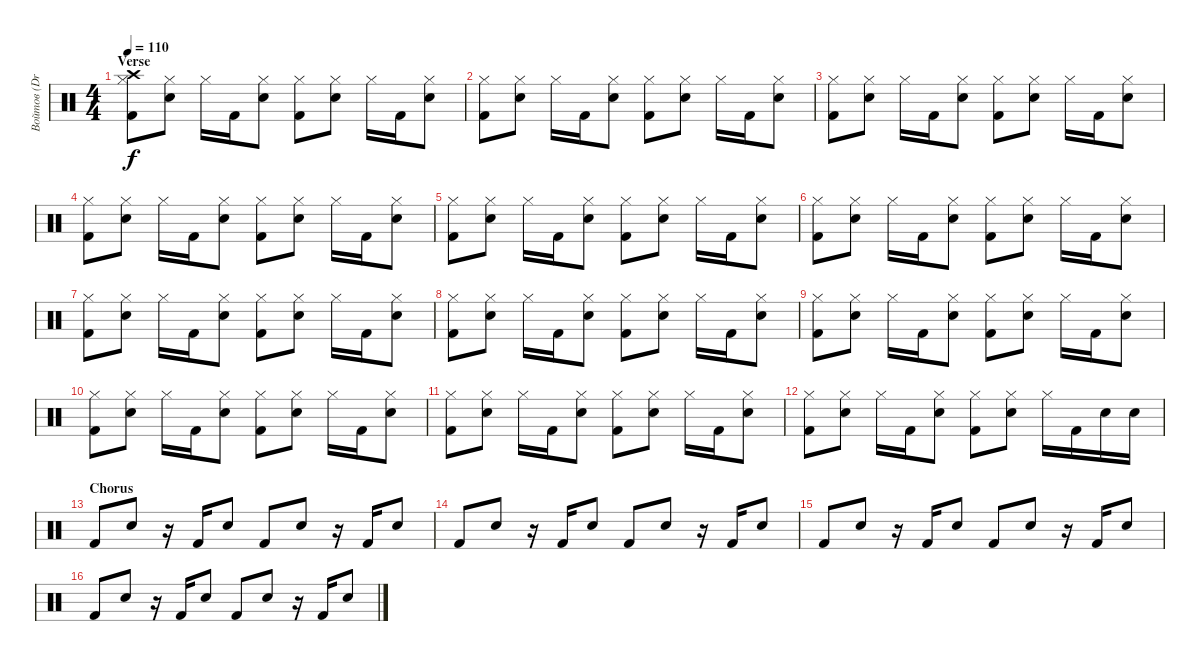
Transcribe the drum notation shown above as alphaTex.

\track ("Войтов (Drums)" "Войтов (Dr") {instrument percussion}
\staff {score}
\articulation defaults
\ts (4 4)
\section ("" "Verse")
\tempo 110
\clef neutral
\ks c
("Kick (hit) 2" "Crash high (hit)" "Hi-Hat (closed)").8{dy f} ("Electric Snare (hit)" "Hi-Hat (closed)").8 "Hi-Hat (closed)".16 "Kick (hit) 2".16 ("Electric Snare (hit)" "Hi-Hat (closed)").8 ("Kick (hit) 2" "Hi-Hat (closed)").8 ("Electric Snare (hit)" "Hi-Hat (closed)").8 "Hi-Hat (closed)".16 "Kick (hit) 2".16 ("Electric Snare (hit)" "Hi-Hat (closed)").8 |
("Kick (hit) 2" "Hi-Hat (closed)").8 ("Electric Snare (hit)" "Hi-Hat (closed)").8 "Hi-Hat (closed)".16 "Kick (hit) 2".16 ("Electric Snare (hit)" "Hi-Hat (closed)").8 ("Kick (hit) 2" "Hi-Hat (closed)").8 ("Electric Snare (hit)" "Hi-Hat (closed)").8 "Hi-Hat (closed)".16 "Kick (hit) 2".16 ("Electric Snare (hit)" "Hi-Hat (closed)").8 |
("Kick (hit) 2" "Hi-Hat (closed)").8 ("Electric Snare (hit)" "Hi-Hat (closed)").8 "Hi-Hat (closed)".16 "Kick (hit) 2".16 ("Electric Snare (hit)" "Hi-Hat (closed)").8 ("Kick (hit) 2" "Hi-Hat (closed)").8 ("Electric Snare (hit)" "Hi-Hat (closed)").8 "Hi-Hat (closed)".16 "Kick (hit) 2".16 ("Electric Snare (hit)" "Hi-Hat (closed)").8 |
("Kick (hit) 2" "Hi-Hat (closed)").8 ("Electric Snare (hit)" "Hi-Hat (closed)").8 "Hi-Hat (closed)".16 "Kick (hit) 2".16 ("Electric Snare (hit)" "Hi-Hat (closed)").8 ("Kick (hit) 2" "Hi-Hat (closed)").8 ("Electric Snare (hit)" "Hi-Hat (closed)").8 "Hi-Hat (closed)".16 "Kick (hit) 2".16 ("Electric Snare (hit)" "Hi-Hat (closed)").8 |
("Kick (hit) 2" "Hi-Hat (closed)").8 ("Electric Snare (hit)" "Hi-Hat (closed)").8 "Hi-Hat (closed)".16 "Kick (hit) 2".16 ("Electric Snare (hit)" "Hi-Hat (closed)").8 ("Kick (hit) 2" "Hi-Hat (closed)").8 ("Electric Snare (hit)" "Hi-Hat (closed)").8 "Hi-Hat (closed)".16 "Kick (hit) 2".16 ("Electric Snare (hit)" "Hi-Hat (closed)").8 |
("Kick (hit) 2" "Hi-Hat (closed)").8 ("Electric Snare (hit)" "Hi-Hat (closed)").8 "Hi-Hat (closed)".16 "Kick (hit) 2".16 ("Electric Snare (hit)" "Hi-Hat (closed)").8 ("Kick (hit) 2" "Hi-Hat (closed)").8 ("Electric Snare (hit)" "Hi-Hat (closed)").8 "Hi-Hat (closed)".16 "Kick (hit) 2".16 ("Electric Snare (hit)" "Hi-Hat (closed)").8 |
("Kick (hit) 2" "Hi-Hat (closed)").8 ("Electric Snare (hit)" "Hi-Hat (closed)").8 "Hi-Hat (closed)".16 "Kick (hit) 2".16 ("Electric Snare (hit)" "Hi-Hat (closed)").8 ("Kick (hit) 2" "Hi-Hat (closed)").8 ("Electric Snare (hit)" "Hi-Hat (closed)").8 "Hi-Hat (closed)".16 "Kick (hit) 2".16 ("Electric Snare (hit)" "Hi-Hat (closed)").8 |
("Kick (hit) 2" "Hi-Hat (closed)").8 ("Electric Snare (hit)" "Hi-Hat (closed)").8 "Hi-Hat (closed)".16 "Kick (hit) 2".16 ("Electric Snare (hit)" "Hi-Hat (closed)").8 ("Kick (hit) 2" "Hi-Hat (closed)").8 ("Electric Snare (hit)" "Hi-Hat (closed)").8 "Hi-Hat (closed)".16 "Kick (hit) 2".16 ("Electric Snare (hit)" "Hi-Hat (closed)").8 |
("Kick (hit) 2" "Hi-Hat (closed)").8 ("Electric Snare (hit)" "Hi-Hat (closed)").8 "Hi-Hat (closed)".16 "Kick (hit) 2".16 ("Electric Snare (hit)" "Hi-Hat (closed)").8 ("Kick (hit) 2" "Hi-Hat (closed)").8 ("Electric Snare (hit)" "Hi-Hat (closed)").8 "Hi-Hat (closed)".16 "Kick (hit) 2".16 ("Electric Snare (hit)" "Hi-Hat (closed)").8 |
("Kick (hit) 2" "Hi-Hat (closed)").8 ("Electric Snare (hit)" "Hi-Hat (closed)").8 "Hi-Hat (closed)".16 "Kick (hit) 2".16 ("Electric Snare (hit)" "Hi-Hat (closed)").8 ("Kick (hit) 2" "Hi-Hat (closed)").8 ("Electric Snare (hit)" "Hi-Hat (closed)").8 "Hi-Hat (closed)".16 "Kick (hit) 2".16 ("Electric Snare (hit)" "Hi-Hat (closed)").8 |
("Kick (hit) 2" "Hi-Hat (closed)").8 ("Electric Snare (hit)" "Hi-Hat (closed)").8 "Hi-Hat (closed)".16 "Kick (hit) 2".16 ("Electric Snare (hit)" "Hi-Hat (closed)").8 ("Kick (hit) 2" "Hi-Hat (closed)").8 ("Electric Snare (hit)" "Hi-Hat (closed)").8 "Hi-Hat (closed)".16 "Kick (hit) 2".16 ("Electric Snare (hit)" "Hi-Hat (closed)").8 |
("Kick (hit) 2" "Hi-Hat (closed)").8 ("Electric Snare (hit)" "Hi-Hat (closed)").8 "Hi-Hat (closed)".16 "Kick (hit) 2".16 ("Electric Snare (hit)" "Hi-Hat (closed)").8 ("Kick (hit) 2" "Hi-Hat (closed)").8 ("Electric Snare (hit)" "Hi-Hat (closed)").8 "Hi-Hat (closed)".16 "Kick (hit) 2".16 "Electric Snare (hit)".16 "Electric Snare (hit)".16 |
\section ("" "Chorus")
"Kick (hit) 2".8 "Electric Snare (hit)".8 r.16 "Kick (hit) 2".16 "Electric Snare (hit)".8 "Kick (hit) 2".8 "Electric Snare (hit)".8 r.16 "Kick (hit) 2".16 "Electric Snare (hit)".8 |
"Kick (hit) 2".8 "Electric Snare (hit)".8 r.16 "Kick (hit) 2".16 "Electric Snare (hit)".8 "Kick (hit) 2".8 "Electric Snare (hit)".8 r.16 "Kick (hit) 2".16 "Electric Snare (hit)".8 |
"Kick (hit) 2".8 "Electric Snare (hit)".8 r.16 "Kick (hit) 2".16 "Electric Snare (hit)".8 "Kick (hit) 2".8 "Electric Snare (hit)".8 r.16 "Kick (hit) 2".16 "Electric Snare (hit)".8 |
"Kick (hit) 2".8 "Electric Snare (hit)".8 r.16 "Kick (hit) 2".16 "Electric Snare (hit)".8 "Kick (hit) 2".8 "Electric Snare (hit)".8 r.16 "Kick (hit) 2".16 "Electric Snare (hit)".8
